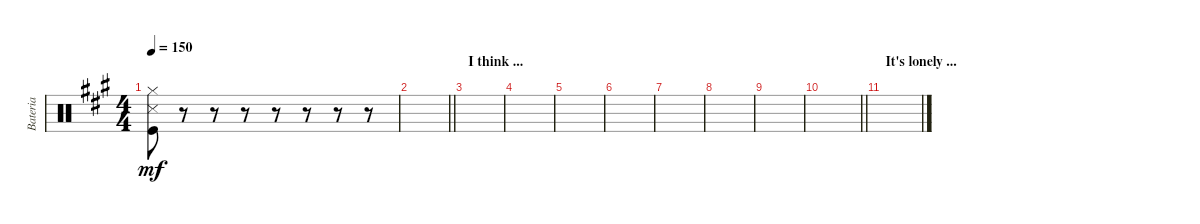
\track ("Bateria" "Bateria") {instrument percussion}
\staff {score}
\articulation defaults
\ts (4 4)
\tempo 150
\clef neutral
\ks a
("Hi-Hat (closed)" "Metronome (hit)" "Kick (hit)").8{dy mf} r.8 r.8 r.8 r.8 r.8 r.8 r.8 |
\barLineRight lightlight
|
\section ("" "I think ...")
|
|
|
|
|
|
|
\barLineRight lightlight
|
\section ("" "It's lonely ...")
